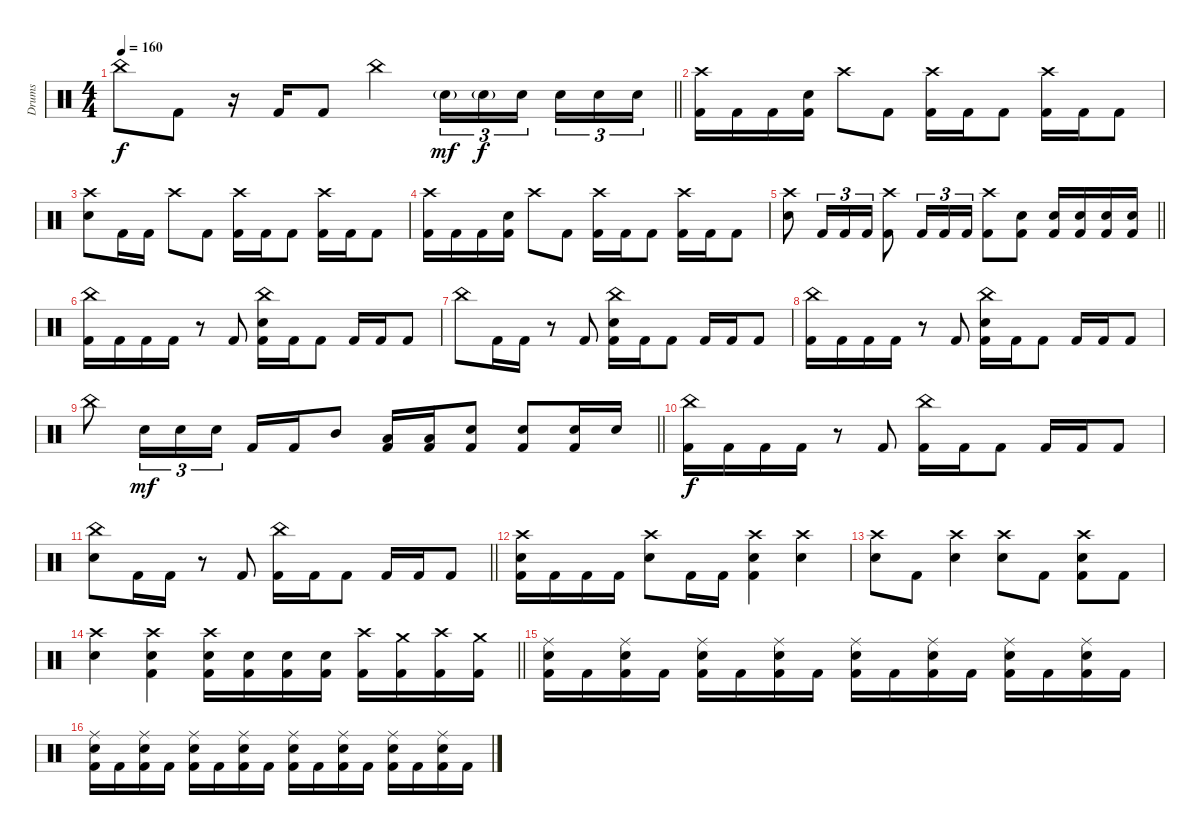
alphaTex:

\track ("Drums" "Drums") {instrument percussion}
\staff {score}
\articulation defaults
\ts (4 4)
\tempo 160
\clef neutral
\barLineRight lightlight
\ks c "China (hit)".8{dy f} "Kick (hit) 2".8
r.16 "Kick (hit) 2".16 "Kick (hit) 2".8 "China (hit)".4 "Electric Snare (hit)"{g}.16{tu (3 2) dy mf} "Electric Snare (hit)"{g}.16{tu (3 2) dy f} "Electric Snare (hit)".16{tu (3 2) beam splitsecondary} "Electric Snare (hit)".16{tu (3 2)} "Electric Snare (hit)".16{tu (3 2)} "Electric Snare (hit)".16{tu (3 2)} |
("Crash high (hit)" "Kick (hit) 2").16 "Kick (hit) 2".16 "Kick (hit) 2".16 ("Electric Snare (hit)" "Kick (hit) 2").16 "Crash high (hit)".8 "Kick (hit) 2".8 ("Crash high (hit)" "Kick (hit) 2").16 "Kick (hit) 2".16 "Kick (hit) 2".8 ("Crash high (hit)" "Kick (hit) 2").16 "Kick (hit) 2".16 "Kick (hit) 2".8 |
("Crash high (hit)" "Electric Snare (hit)").8 "Kick (hit) 2".16 "Kick (hit) 2".16 "Crash high (hit)".8 "Kick (hit) 2".8 ("Crash high (hit)" "Kick (hit) 2").16 "Kick (hit) 2".16 "Kick (hit) 2".8 ("Crash high (hit)" "Kick (hit) 2").16 "Kick (hit) 2".16 "Kick (hit) 2".8 |
("Crash high (hit)" "Kick (hit) 2").16 "Kick (hit) 2".16 "Kick (hit) 2".16 ("Electric Snare (hit)" "Kick (hit) 2").16 "Crash high (hit)".8 "Kick (hit) 2".8 ("Crash high (hit)" "Kick (hit) 2").16 "Kick (hit) 2".16 "Kick (hit) 2".8 ("Crash high (hit)" "Kick (hit) 2").16 "Kick (hit) 2".16 "Kick (hit) 2".8 |
\barLineRight lightlight
("Crash high (hit)" "Electric Snare (hit)").8 "Kick (hit) 2".16{tu (3 2)} "Kick (hit) 2".16{tu (3 2)} "Kick (hit) 2".16{tu (3 2)} ("Crash high (hit)" "Kick (hit) 2").8 "Kick (hit) 2".16{tu (3 2)} "Kick (hit) 2".16{tu (3 2)} "Kick (hit) 2".16{tu (3 2)} ("Crash high (hit)" "Kick (hit) 2").8 ("Electric Snare (hit)" "Kick (hit) 2").8 ("Electric Snare (hit)" "Kick (hit) 2").16 ("Electric Snare (hit)" "Kick (hit) 2").16 ("Electric Snare (hit)" "Kick (hit) 2").16 ("Electric Snare (hit)" "Kick (hit) 2").16 |
("China (hit)" "Kick (hit) 2").16 "Kick (hit) 2".16 "Kick (hit) 2".16 "Kick (hit) 2".16 r.8 "Kick (hit) 2".8 ("China (hit)" "Electric Snare (hit)" "Kick (hit) 2").16 "Kick (hit) 2".16 "Kick (hit) 2".8 "Kick (hit) 2".16 "Kick (hit) 2".16 "Kick (hit) 2".8 |
"China (hit)".8 "Kick (hit) 2".16 "Kick (hit) 2".16 r.8 "Kick (hit) 2".8 ("China (hit)" "Electric Snare (hit)" "Kick (hit) 2").16 "Kick (hit) 2".16 "Kick (hit) 2".8 "Kick (hit) 2".16 "Kick (hit) 2".16 "Kick (hit) 2".8 |
("China (hit)" "Kick (hit) 2").16 "Kick (hit) 2".16 "Kick (hit) 2".16 "Kick (hit) 2".16 r.8 "Kick (hit) 2".8 ("China (hit)" "Electric Snare (hit)" "Kick (hit) 2").16 "Kick (hit) 2".16 "Kick (hit) 2".8 "Kick (hit) 2".16 "Kick (hit) 2".16 "Kick (hit) 2".8 |
\barLineRight lightlight "China (hit)".8 "Electric Snare (hit)".16{tu (3 2) dy mf} "Electric Snare (hit)".16{tu (3 2)} "Electric Snare (hit)".16{tu (3 2)} "Kick (hit) 2".16 "Kick (hit) 2".16 "Mid Tom (hit)".8
("Low Tom (hit)" "Kick (hit) 2").16 ("Low Tom (hit)" "Kick (hit) 2").16 ("Electric Snare (hit)" "Kick (hit) 2").8 ("Electric Snare (hit)" "Kick (hit) 2").8 ("Electric Snare (hit)" "Kick (hit) 2").16 "Electric Snare (hit)".16 |
("China (hit)" "Kick (hit) 2").16{dy f} "Kick (hit) 2".16 "Kick (hit) 2".16 "Kick (hit) 2".16 r.8 "Kick (hit) 2".8 ("China (hit)" "Kick (hit) 2").16 "Kick (hit) 2".16 "Kick (hit) 2".8 "Kick (hit) 2".16 "Kick (hit) 2".16 "Kick (hit) 2".8 |
\barLineRight lightlight
("China (hit)" "Electric Snare (hit)").8 "Kick (hit) 2".16 "Kick (hit) 2".16 r.8 "Kick (hit) 2".8 ("China (hit)" "Kick (hit) 2").16 "Kick (hit) 2".16 "Kick (hit) 2".8 "Kick (hit) 2".16 "Kick (hit) 2".16 "Kick (hit) 2".8 |
("Crash high (hit)" "Electric Snare (hit)" "Kick (hit) 2").16 "Kick (hit) 2".16 "Kick (hit) 2".16 "Kick (hit) 2".16 ("Crash high (hit)" "Electric Snare (hit)").8 "Kick (hit) 2".16 "Kick (hit) 2".16 ("Crash high (hit)" "Electric Snare (hit)" "Kick (hit) 2").4 ("Crash high (hit)" "Electric Snare (hit)").4 |
("Crash high (hit)" "Electric Snare (hit)").8 "Kick (hit) 2".8 ("Crash high (hit)" "Electric Snare (hit)").4 ("Crash high (hit)" "Electric Snare (hit)").8 "Kick (hit) 2".8 ("Crash high (hit)" "Electric Snare (hit)" "Kick (hit) 2").8 "Kick (hit) 2".8 |
\barLineRight lightlight
("Crash high (hit)" "Electric Snare (hit)").4 ("Crash high (hit)" "Electric Snare (hit)" "Kick (hit) 2").4 ("Crash high (hit)" "Electric Snare (hit)" "Kick (hit) 2").16 ("Electric Snare (hit)" "Kick (hit) 2").16 ("Electric Snare (hit)" "Kick (hit) 2").16 ("Electric Snare (hit)" "Kick (hit) 2").16 ("Crash high (hit)" "Kick (hit) 2").16 ("Crash medium (hit)" "Kick (hit) 2").16 ("Crash high (hit)" "Kick (hit) 2").16 ("Crash medium (hit)" "Kick (hit) 2").16 |
("Ride (middle)" "Electric Snare (hit)" "Kick (hit) 2").16 "Kick (hit) 2".16 ("Ride (middle)" "Electric Snare (hit)" "Kick (hit) 2").16 "Kick (hit) 2".16 ("Ride (middle)" "Electric Snare (hit)" "Kick (hit) 2").16 "Kick (hit) 2".16 ("Ride (middle)" "Electric Snare (hit)" "Kick (hit) 2").16 "Kick (hit) 2".16 ("Ride (middle)" "Electric Snare (hit)" "Kick (hit) 2").16 "Kick (hit) 2".16 ("Ride (middle)" "Electric Snare (hit)" "Kick (hit) 2").16 "Kick (hit) 2".16 ("Ride (middle)" "Electric Snare (hit)" "Kick (hit) 2").16 "Kick (hit) 2".16 ("Ride (middle)" "Electric Snare (hit)" "Kick (hit) 2").16 "Kick (hit) 2".16 |
("Ride (middle)" "Electric Snare (hit)" "Kick (hit) 2").16 "Kick (hit) 2".16 ("Ride (middle)" "Electric Snare (hit)" "Kick (hit) 2").16 "Kick (hit) 2".16 ("Ride (middle)" "Electric Snare (hit)" "Kick (hit) 2").16 "Kick (hit) 2".16 ("Ride (middle)" "Electric Snare (hit)" "Kick (hit) 2").16 "Kick (hit) 2".16 ("Ride (middle)" "Electric Snare (hit)" "Kick (hit) 2").16 "Kick (hit) 2".16 ("Ride (middle)" "Electric Snare (hit)" "Kick (hit) 2").16 "Kick (hit) 2".16 ("Ride (middle)" "Electric Snare (hit)" "Kick (hit) 2").16 "Kick (hit) 2".16 ("Ride (middle)" "Electric Snare (hit)" "Kick (hit) 2").16 "Kick (hit) 2".16
